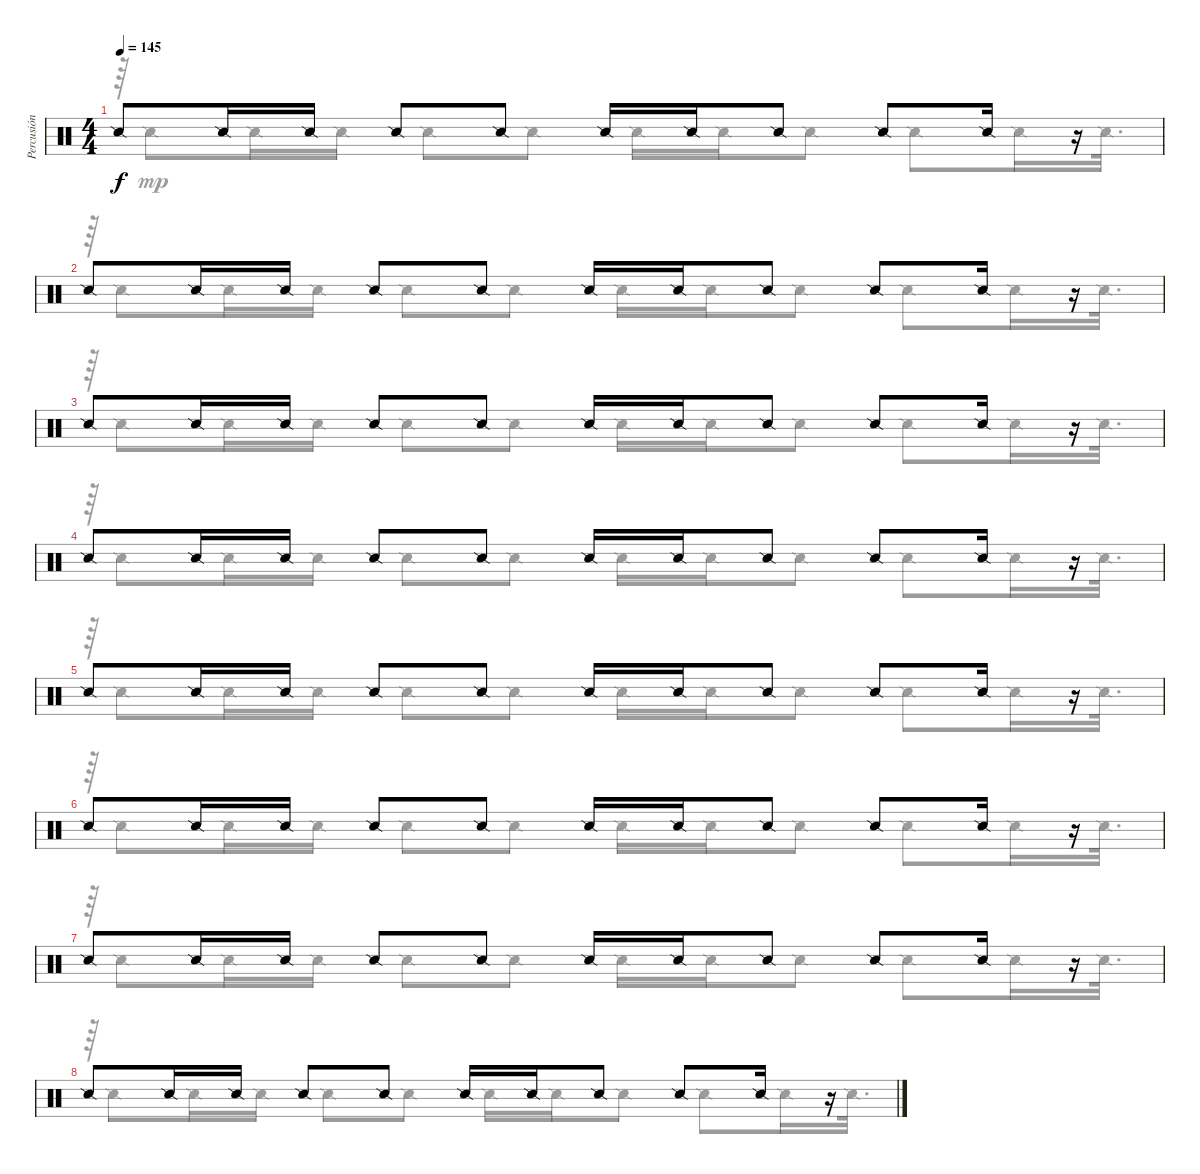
\track ("Percusión" "Percusión") {instrument percussion}
\staff {score}
\articulation defaults
\voice
\ts (4 4)
\tempo 145
\clef neutral
\ks c "Snare (side stick) 2".8{dy f} "Snare (side stick) 2".16 "Snare (side stick) 2".16 "Snare (side stick) 2".8 "Snare (side stick) 2".8 "Snare (side stick) 2".16 "Snare (side stick) 2".16 "Snare (side stick) 2".8 "Snare (side stick) 2".8 "Snare (side stick) 2".16
r.16 |
"Snare (side stick) 2".8 "Snare (side stick) 2".16 "Snare (side stick) 2".16 "Snare (side stick) 2".8 "Snare (side stick) 2".8 "Snare (side stick) 2".16 "Snare (side stick) 2".16 "Snare (side stick) 2".8 "Snare (side stick) 2".8 "Snare (side stick) 2".16 r.16 |
"Snare (side stick) 2".8 "Snare (side stick) 2".16 "Snare (side stick) 2".16 "Snare (side stick) 2".8 "Snare (side stick) 2".8 "Snare (side stick) 2".16 "Snare (side stick) 2".16 "Snare (side stick) 2".8 "Snare (side stick) 2".8 "Snare (side stick) 2".16 r.16 |
"Snare (side stick) 2".8 "Snare (side stick) 2".16 "Snare (side stick) 2".16 "Snare (side stick) 2".8 "Snare (side stick) 2".8 "Snare (side stick) 2".16 "Snare (side stick) 2".16 "Snare (side stick) 2".8 "Snare (side stick) 2".8 "Snare (side stick) 2".16 r.16 |
"Snare (side stick) 2".8 "Snare (side stick) 2".16 "Snare (side stick) 2".16 "Snare (side stick) 2".8 "Snare (side stick) 2".8 "Snare (side stick) 2".16 "Snare (side stick) 2".16 "Snare (side stick) 2".8 "Snare (side stick) 2".8 "Snare (side stick) 2".16 r.16 |
"Snare (side stick) 2".8 "Snare (side stick) 2".16 "Snare (side stick) 2".16 "Snare (side stick) 2".8 "Snare (side stick) 2".8 "Snare (side stick) 2".16 "Snare (side stick) 2".16 "Snare (side stick) 2".8 "Snare (side stick) 2".8 "Snare (side stick) 2".16 r.16 |
"Snare (side stick) 2".8 "Snare (side stick) 2".16 "Snare (side stick) 2".16 "Snare (side stick) 2".8 "Snare (side stick) 2".8 "Snare (side stick) 2".16 "Snare (side stick) 2".16 "Snare (side stick) 2".8 "Snare (side stick) 2".8 "Snare (side stick) 2".16 r.16 |
"Snare (side stick) 2".8 "Snare (side stick) 2".16 "Snare (side stick) 2".16 "Snare (side stick) 2".8 "Snare (side stick) 2".8 "Snare (side stick) 2".16 "Snare (side stick) 2".16 "Snare (side stick) 2".8 "Snare (side stick) 2".8 "Snare (side stick) 2".16 r.16
\voice
\clef neutral
\ottava regular
\simile none
\ks c
r.64{dy mp} "Snare (side stick) 2".8 "Snare (side stick) 2".16 "Snare (side stick) 2".16 "Snare (side stick) 2".8 "Snare (side stick) 2".8 "Snare (side stick) 2".16 "Snare (side stick) 2".16 "Snare (side stick) 2".8 "Snare (side stick) 2".8 "Snare (side stick) 2".16 "Snare (side stick) 2".32{d} |
r.64 "Snare (side stick) 2".8 "Snare (side stick) 2".16 "Snare (side stick) 2".16 "Snare (side stick) 2".8 "Snare (side stick) 2".8 "Snare (side stick) 2".16 "Snare (side stick) 2".16 "Snare (side stick) 2".8 "Snare (side stick) 2".8 "Snare (side stick) 2".16 "Snare (side stick) 2".32{d} |
r.64 "Snare (side stick) 2".8 "Snare (side stick) 2".16 "Snare (side stick) 2".16 "Snare (side stick) 2".8 "Snare (side stick) 2".8 "Snare (side stick) 2".16 "Snare (side stick) 2".16 "Snare (side stick) 2".8 "Snare (side stick) 2".8 "Snare (side stick) 2".16 "Snare (side stick) 2".32{d} |
r.64 "Snare (side stick) 2".8 "Snare (side stick) 2".16 "Snare (side stick) 2".16 "Snare (side stick) 2".8 "Snare (side stick) 2".8 "Snare (side stick) 2".16 "Snare (side stick) 2".16 "Snare (side stick) 2".8 "Snare (side stick) 2".8 "Snare (side stick) 2".16 "Snare (side stick) 2".32{d} |
r.64 "Snare (side stick) 2".8 "Snare (side stick) 2".16 "Snare (side stick) 2".16 "Snare (side stick) 2".8 "Snare (side stick) 2".8 "Snare (side stick) 2".16 "Snare (side stick) 2".16 "Snare (side stick) 2".8 "Snare (side stick) 2".8 "Snare (side stick) 2".16 "Snare (side stick) 2".32{d} |
r.64 "Snare (side stick) 2".8 "Snare (side stick) 2".16 "Snare (side stick) 2".16 "Snare (side stick) 2".8 "Snare (side stick) 2".8 "Snare (side stick) 2".16 "Snare (side stick) 2".16 "Snare (side stick) 2".8 "Snare (side stick) 2".8 "Snare (side stick) 2".16 "Snare (side stick) 2".32{d} |
r.64 "Snare (side stick) 2".8 "Snare (side stick) 2".16 "Snare (side stick) 2".16 "Snare (side stick) 2".8 "Snare (side stick) 2".8 "Snare (side stick) 2".16 "Snare (side stick) 2".16 "Snare (side stick) 2".8 "Snare (side stick) 2".8 "Snare (side stick) 2".16 "Snare (side stick) 2".32{d} |
r.64 "Snare (side stick) 2".8 "Snare (side stick) 2".16 "Snare (side stick) 2".16 "Snare (side stick) 2".8 "Snare (side stick) 2".8 "Snare (side stick) 2".16 "Snare (side stick) 2".16 "Snare (side stick) 2".8 "Snare (side stick) 2".8 "Snare (side stick) 2".16 "Snare (side stick) 2".32{d}
